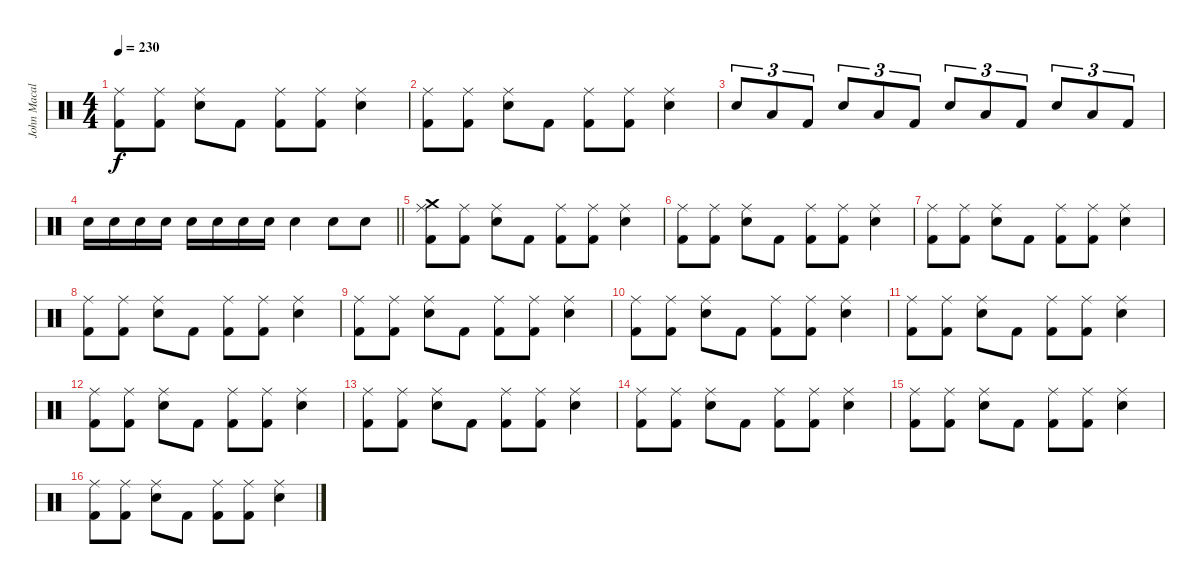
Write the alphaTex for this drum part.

\track ("John Macaluso" "John Macal") {instrument percussion}
\staff {score}
\articulation defaults
\ts (4 4)
\tempo 230
\clef neutral
\ks c
("Ride (middle)" "Kick (hit) 2").8{dy f} ("Ride (middle)" "Kick (hit) 2").8 ("Ride (middle)" "Snare (hit) 2").8 "Kick (hit) 2".8 ("Ride (middle)" "Kick (hit) 2").8 ("Ride (middle)" "Kick (hit) 2").8 ("Ride (middle)" "Snare (hit) 2").4 |
("Ride (middle)" "Kick (hit) 2").8 ("Ride (middle)" "Kick (hit) 2").8 ("Ride (middle)" "Snare (hit) 2").8 "Kick (hit) 2".8 ("Ride (middle)" "Kick (hit) 2").8 ("Ride (middle)" "Kick (hit) 2").8 ("Ride (middle)" "Snare (hit) 2").4 |
"Snare (hit) 2".8{tu (3 2)} "Low Tom (hit)".8{tu (3 2)} "Kick (hit) 2".8{tu (3 2)} "Snare (hit) 2".8{tu (3 2)} "Low Tom (hit)".8{tu (3 2)} "Kick (hit) 2".8{tu (3 2)} "Snare (hit) 2".8{tu (3 2)} "Low Tom (hit)".8{tu (3 2)} "Kick (hit) 2".8{tu (3 2)} "Snare (hit) 2".8{tu (3 2)} "Low Tom (hit)".8{tu (3 2)} "Kick (hit) 2".8{tu (3 2)} |
\barLineRight lightlight "Snare (hit) 2".16 "Snare (hit) 2".16 "Snare (hit) 2".16 "Snare (hit) 2".16 "Snare (hit) 2".16 "Snare (hit) 2".16 "Snare (hit) 2".16 "Snare (hit) 2".16 "Snare (hit) 2".4 "Snare (hit) 2".8 "Snare (hit) 2".8
|
("Crash medium (hit)" "Ride (middle)" "Kick (hit) 2").8 ("Ride (middle)" "Kick (hit) 2").8 ("Ride (middle)" "Snare (hit) 2").8 "Kick (hit) 2".8 ("Ride (middle)" "Kick (hit) 2").8 ("Ride (middle)" "Kick (hit) 2").8 ("Ride (middle)" "Snare (hit) 2").4 |
("Ride (middle)" "Kick (hit) 2").8 ("Ride (middle)" "Kick (hit) 2").8 ("Ride (middle)" "Snare (hit) 2").8 "Kick (hit) 2".8 ("Ride (middle)" "Kick (hit) 2").8 ("Ride (middle)" "Kick (hit) 2").8 ("Ride (middle)" "Snare (hit) 2").4 |
("Ride (middle)" "Kick (hit) 2").8 ("Ride (middle)" "Kick (hit) 2").8 ("Ride (middle)" "Snare (hit) 2").8 "Kick (hit) 2".8 ("Ride (middle)" "Kick (hit) 2").8 ("Ride (middle)" "Kick (hit) 2").8 ("Ride (middle)" "Snare (hit) 2").4 |
("Ride (middle)" "Kick (hit) 2").8 ("Ride (middle)" "Kick (hit) 2").8 ("Ride (middle)" "Snare (hit) 2").8 "Kick (hit) 2".8 ("Ride (middle)" "Kick (hit) 2").8 ("Ride (middle)" "Kick (hit) 2").8 ("Ride (middle)" "Snare (hit) 2").4 |
("Ride (middle)" "Kick (hit) 2").8 ("Ride (middle)" "Kick (hit) 2").8 ("Ride (middle)" "Snare (hit) 2").8 "Kick (hit) 2".8 ("Ride (middle)" "Kick (hit) 2").8 ("Ride (middle)" "Kick (hit) 2").8 ("Ride (middle)" "Snare (hit) 2").4 |
("Ride (middle)" "Kick (hit) 2").8 ("Ride (middle)" "Kick (hit) 2").8 ("Ride (middle)" "Snare (hit) 2").8 "Kick (hit) 2".8 ("Ride (middle)" "Kick (hit) 2").8 ("Ride (middle)" "Kick (hit) 2").8 ("Ride (middle)" "Snare (hit) 2").4 |
("Ride (middle)" "Kick (hit) 2").8 ("Ride (middle)" "Kick (hit) 2").8 ("Ride (middle)" "Snare (hit) 2").8 "Kick (hit) 2".8 ("Ride (middle)" "Kick (hit) 2").8 ("Ride (middle)" "Kick (hit) 2").8 ("Ride (middle)" "Snare (hit) 2").4 |
("Ride (middle)" "Kick (hit) 2").8 ("Ride (middle)" "Kick (hit) 2").8 ("Ride (middle)" "Snare (hit) 2").8 "Kick (hit) 2".8 ("Ride (middle)" "Kick (hit) 2").8 ("Ride (middle)" "Kick (hit) 2").8 ("Ride (middle)" "Snare (hit) 2").4 |
("Ride (middle)" "Kick (hit) 2").8 ("Ride (middle)" "Kick (hit) 2").8 ("Ride (middle)" "Snare (hit) 2").8 "Kick (hit) 2".8 ("Ride (middle)" "Kick (hit) 2").8 ("Ride (middle)" "Kick (hit) 2").8 ("Ride (middle)" "Snare (hit) 2").4 |
("Ride (middle)" "Kick (hit) 2").8 ("Ride (middle)" "Kick (hit) 2").8 ("Ride (middle)" "Snare (hit) 2").8 "Kick (hit) 2".8 ("Ride (middle)" "Kick (hit) 2").8 ("Ride (middle)" "Kick (hit) 2").8 ("Ride (middle)" "Snare (hit) 2").4 |
("Ride (middle)" "Kick (hit) 2").8 ("Ride (middle)" "Kick (hit) 2").8 ("Ride (middle)" "Snare (hit) 2").8 "Kick (hit) 2".8 ("Ride (middle)" "Kick (hit) 2").8 ("Ride (middle)" "Kick (hit) 2").8 ("Ride (middle)" "Snare (hit) 2").4 |
("Ride (middle)" "Kick (hit) 2").8 ("Ride (middle)" "Kick (hit) 2").8 ("Ride (middle)" "Snare (hit) 2").8 "Kick (hit) 2".8 ("Ride (middle)" "Kick (hit) 2").8 ("Ride (middle)" "Kick (hit) 2").8 ("Ride (middle)" "Snare (hit) 2").4
